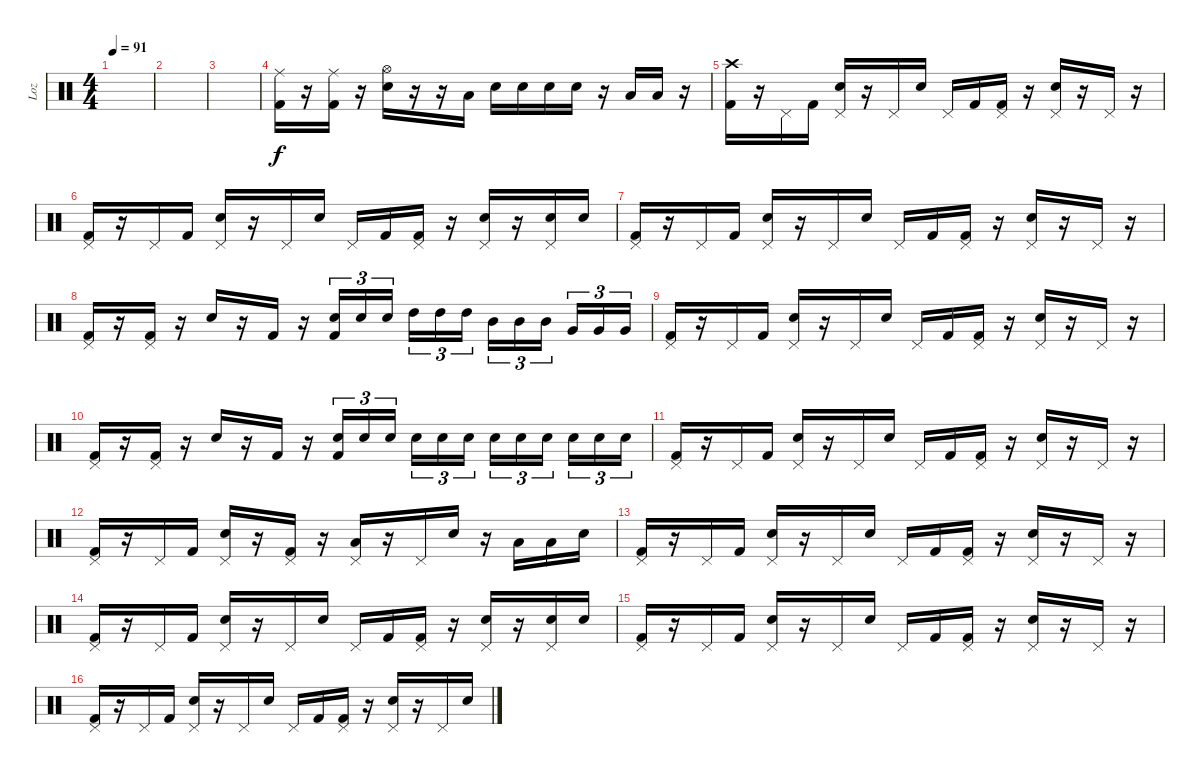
\track ("Loz" "Loz") {instrument percussion}
\staff {score}
\articulation defaults
\ts (4 4)
\tempo 91
\clef neutral
\ks c
|
|
|
("Ride (middle)" "Kick (hit) 2").16 r.16 ("Ride (middle)" "Kick (hit) 2").16 r.16 ("Hi-Hat (open)" "Electric Snare (hit)").16 r.16 r.16 "Low Tom (hit)".16 "Electric Snare (hit)".16 "Electric Snare (hit)".16 "Electric Snare (hit)".16 "Electric Snare (hit)".16 r.16 "Low Tom (hit)".16 "Low Tom (hit)".16 r.16 |
("Crash high (hit)" "Kick (hit) 2").16 r.16 "Pedal Hi-Hat (hit)".16 "Kick (hit) 2".16 ("Pedal Hi-Hat (hit)" "Electric Snare (hit)").16 r.16 "Pedal Hi-Hat (hit)".16 "Electric Snare (hit)".16 "Pedal Hi-Hat (hit)".16 "Kick (hit) 2".16 ("Pedal Hi-Hat (hit)" "Kick (hit) 2").16 r.16 ("Pedal Hi-Hat (hit)" "Electric Snare (hit)").16 r.16 "Pedal Hi-Hat (hit)".16 r.16 |
("Pedal Hi-Hat (hit)" "Kick (hit) 2").16 r.16 "Pedal Hi-Hat (hit)".16 "Kick (hit) 2".16 ("Pedal Hi-Hat (hit)" "Electric Snare (hit)").16 r.16 "Pedal Hi-Hat (hit)".16 "Electric Snare (hit)".16 "Pedal Hi-Hat (hit)".16 "Kick (hit) 2".16 ("Pedal Hi-Hat (hit)" "Kick (hit) 2").16 r.16 ("Pedal Hi-Hat (hit)" "Electric Snare (hit)").16 r.16 ("Pedal Hi-Hat (hit)" "Electric Snare (hit)").16 "Electric Snare (hit)".16 |
("Pedal Hi-Hat (hit)" "Kick (hit) 2").16 r.16 "Pedal Hi-Hat (hit)".16 "Kick (hit) 2".16 ("Pedal Hi-Hat (hit)" "Electric Snare (hit)").16 r.16 "Pedal Hi-Hat (hit)".16 "Electric Snare (hit)".16 "Pedal Hi-Hat (hit)".16 "Kick (hit) 2".16 ("Pedal Hi-Hat (hit)" "Kick (hit) 2").16 r.16 ("Pedal Hi-Hat (hit)" "Electric Snare (hit)").16 r.16 "Pedal Hi-Hat (hit)".16 r.16 |
("Pedal Hi-Hat (hit)" "Kick (hit) 2").16 r.16 ("Pedal Hi-Hat (hit)" "Kick (hit) 2").16 r.16 "Electric Snare (hit)".16 r.16 "Kick (hit) 2".16 r.16 ("Electric Snare (hit)" "Kick (hit) 2").16{tu (3 2)} "Electric Snare (hit)".16{tu (3 2)} "Electric Snare (hit)".16{tu (3 2)} "High Tom (hit)".16{tu (3 2)} "High Tom (hit)".16{tu (3 2)} "High Tom (hit)".16{tu (3 2)} "Mid Tom (hit)".16{tu (3 2)} "Mid Tom (hit)".16{tu (3 2)} "Mid Tom (hit)".16{tu (3 2)} "Very Low Tom (hit)".16{tu (3 2)} "Very Low Tom (hit)".16{tu (3 2)} "Very Low Tom (hit)".16{tu (3 2)} |
("Pedal Hi-Hat (hit)" "Kick (hit) 2").16 r.16 "Pedal Hi-Hat (hit)".16 "Kick (hit) 2".16 ("Pedal Hi-Hat (hit)" "Electric Snare (hit)").16 r.16 "Pedal Hi-Hat (hit)".16 "Electric Snare (hit)".16 "Pedal Hi-Hat (hit)".16 "Kick (hit) 2".16 ("Pedal Hi-Hat (hit)" "Kick (hit) 2").16 r.16 ("Pedal Hi-Hat (hit)" "Electric Snare (hit)").16 r.16 "Pedal Hi-Hat (hit)".16 r.16 |
("Pedal Hi-Hat (hit)" "Kick (hit) 2").16 r.16 ("Pedal Hi-Hat (hit)" "Kick (hit) 2").16 r.16 "Electric Snare (hit)".16 r.16 "Kick (hit) 2".16 r.16 ("Electric Snare (hit)" "Kick (hit) 2").16{tu (3 2)} "Electric Snare (hit)".16{tu (3 2)} "Electric Snare (hit)".16{tu (3 2)} "Electric Snare (hit)".16{tu (3 2)} "Electric Snare (hit)".16{tu (3 2)} "Electric Snare (hit)".16{tu (3 2)} "Electric Snare (hit)".16{tu (3 2)} "Electric Snare (hit)".16{tu (3 2)} "Electric Snare (hit)".16{tu (3 2)} "Electric Snare (hit)".16{tu (3 2)} "Electric Snare (hit)".16{tu (3 2)} "Electric Snare (hit)".16{tu (3 2)} |
("Pedal Hi-Hat (hit)" "Kick (hit) 2").16 r.16 "Pedal Hi-Hat (hit)".16 "Kick (hit) 2".16 ("Pedal Hi-Hat (hit)" "Electric Snare (hit)").16 r.16 "Pedal Hi-Hat (hit)".16 "Electric Snare (hit)".16 "Pedal Hi-Hat (hit)".16 "Kick (hit) 2".16 ("Pedal Hi-Hat (hit)" "Kick (hit) 2").16 r.16 ("Pedal Hi-Hat (hit)" "Electric Snare (hit)").16 r.16 "Pedal Hi-Hat (hit)".16 r.16 |
("Pedal Hi-Hat (hit)" "Kick (hit) 2").16 r.16 "Pedal Hi-Hat (hit)".16 "Kick (hit) 2".16 ("Pedal Hi-Hat (hit)" "Electric Snare (hit)").16 r.16 ("Pedal Hi-Hat (hit)" "Kick (hit) 2").16 r.16 ("Pedal Hi-Hat (hit)" "Low Tom (hit)").16 r.16 "Pedal Hi-Hat (hit)".16 "Electric Snare (hit)".16 r.16 "Low Floor Tom (hit)".16 "Low Floor Tom (hit)".16 "Electric Snare (hit)".16 |
("Pedal Hi-Hat (hit)" "Kick (hit) 2").16 r.16 "Pedal Hi-Hat (hit)".16 "Kick (hit) 2".16 ("Pedal Hi-Hat (hit)" "Electric Snare (hit)").16 r.16 "Pedal Hi-Hat (hit)".16 "Electric Snare (hit)".16 "Pedal Hi-Hat (hit)".16 "Kick (hit) 2".16 ("Pedal Hi-Hat (hit)" "Kick (hit) 2").16 r.16 ("Pedal Hi-Hat (hit)" "Electric Snare (hit)").16 r.16 "Pedal Hi-Hat (hit)".16 r.16 |
("Pedal Hi-Hat (hit)" "Kick (hit) 2").16 r.16 "Pedal Hi-Hat (hit)".16 "Kick (hit) 2".16 ("Pedal Hi-Hat (hit)" "Electric Snare (hit)").16 r.16 "Pedal Hi-Hat (hit)".16 "Electric Snare (hit)".16 "Pedal Hi-Hat (hit)".16 "Kick (hit) 2".16 ("Pedal Hi-Hat (hit)" "Kick (hit) 2").16 r.16 ("Pedal Hi-Hat (hit)" "Electric Snare (hit)").16 r.16 ("Pedal Hi-Hat (hit)" "Electric Snare (hit)").16 "Electric Snare (hit)".16 |
("Pedal Hi-Hat (hit)" "Kick (hit) 2").16 r.16 "Pedal Hi-Hat (hit)".16 "Kick (hit) 2".16 ("Pedal Hi-Hat (hit)" "Electric Snare (hit)").16 r.16 "Pedal Hi-Hat (hit)".16 "Electric Snare (hit)".16 "Pedal Hi-Hat (hit)".16 "Kick (hit) 2".16 ("Pedal Hi-Hat (hit)" "Kick (hit) 2").16 r.16 ("Pedal Hi-Hat (hit)" "Electric Snare (hit)").16 r.16 "Pedal Hi-Hat (hit)".16 r.16 |
("Pedal Hi-Hat (hit)" "Kick (hit) 2").16 r.16 "Pedal Hi-Hat (hit)".16 "Kick (hit) 2".16 ("Pedal Hi-Hat (hit)" "Electric Snare (hit)").16 r.16 "Pedal Hi-Hat (hit)".16 "Electric Snare (hit)".16 "Pedal Hi-Hat (hit)".16 "Kick (hit) 2".16 ("Pedal Hi-Hat (hit)" "Kick (hit) 2").16 r.16 ("Pedal Hi-Hat (hit)" "Electric Snare (hit)").16 r.16 "Pedal Hi-Hat (hit)".16 "Electric Snare (hit)".16
